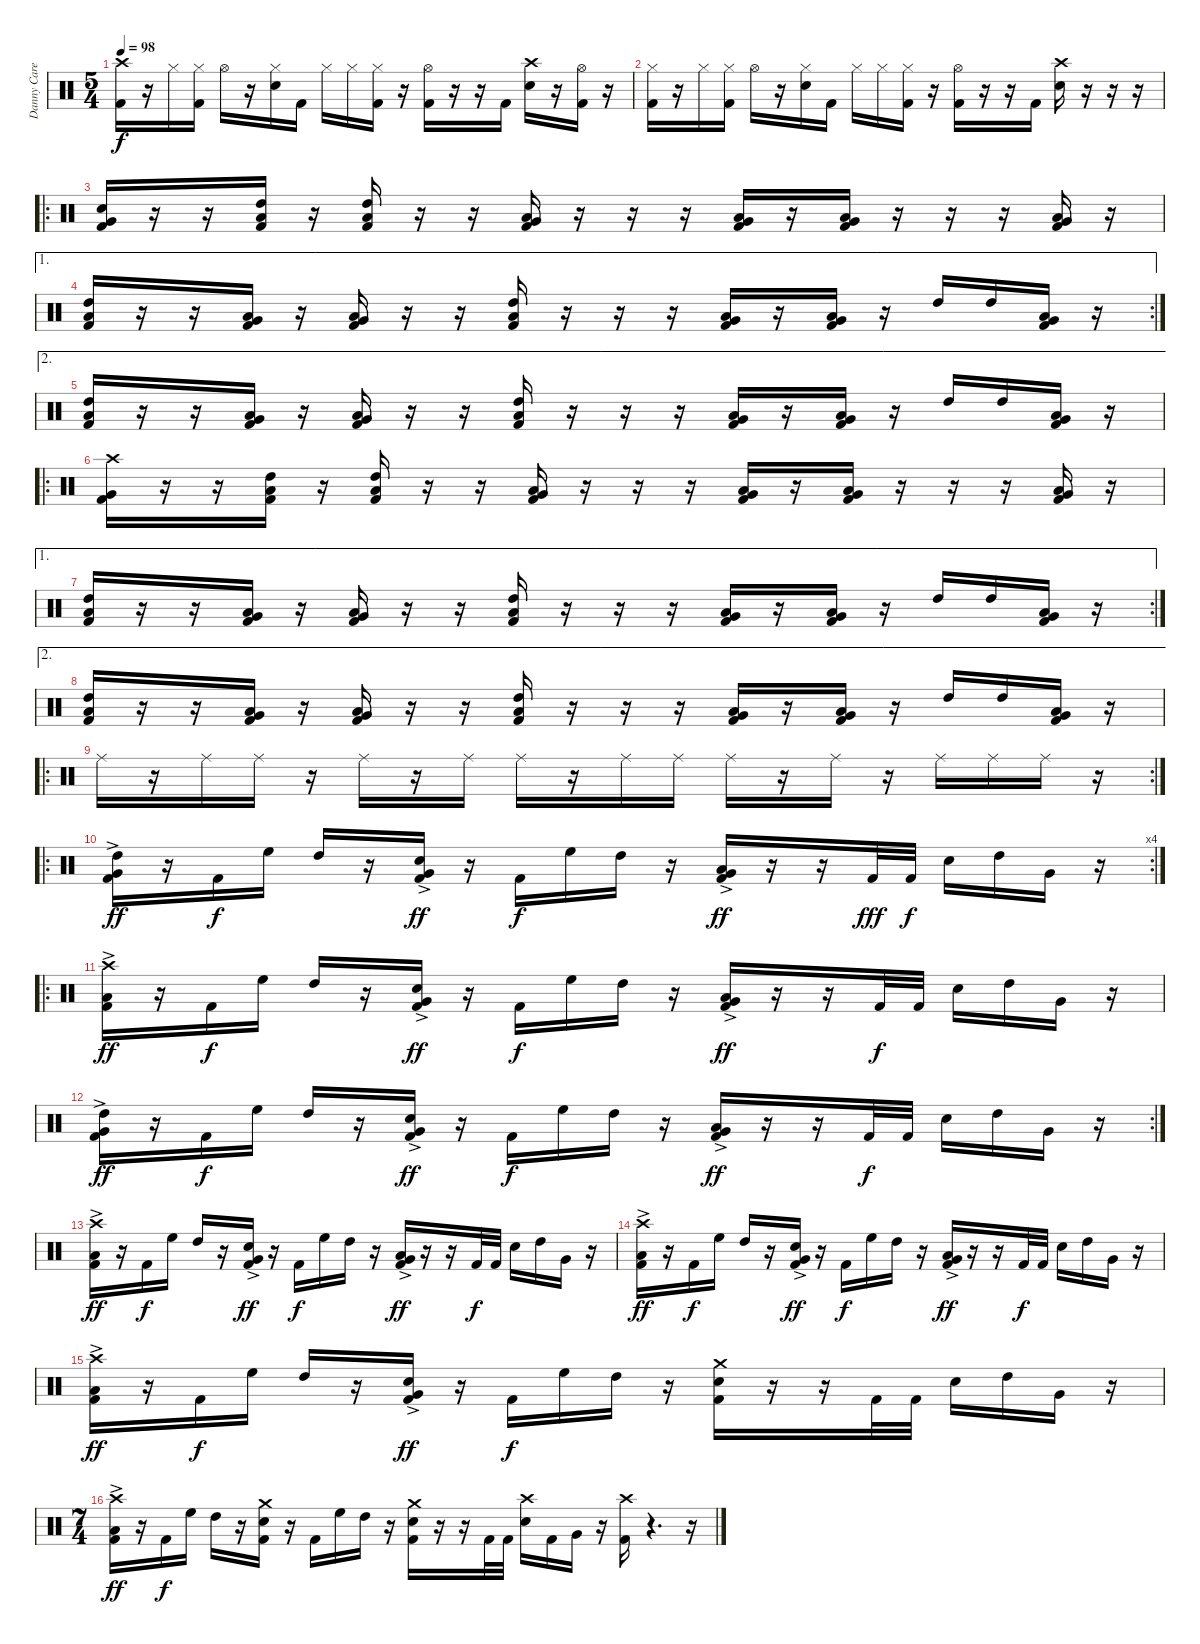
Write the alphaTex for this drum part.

\track ("Danny Carey" "Danny Care") {instrument percussion}
\staff {score}
\articulation defaults
\ts (5 4)
\tempo 98
\clef neutral
\ks c
("Crash high (hit)" "Kick (hit) 2").16{dy f} r.16 "Hi-Hat (closed)".16 ("Hi-Hat (closed)" "Kick (hit) 2").16 "Hi-Hat (open)".16 r.16 ("Hi-Hat (closed)" "Electric Snare (hit)").16 "Kick (hit) 2".16 "Hi-Hat (closed)".16 "Hi-Hat (closed)".16 ("Hi-Hat (closed)" "Kick (hit) 2").16 r.16 ("Hi-Hat (open)" "Kick (hit) 2").16 r.16 r.16 "Kick (hit) 2".16 ("Crash high (hit)" "Electric Snare (hit)").16 r.16 ("Hi-Hat (open)" "Kick (hit) 2").16 r.16 |
("Hi-Hat (closed)" "Kick (hit) 2").16 r.16 "Hi-Hat (closed)".16 ("Hi-Hat (closed)" "Kick (hit) 2").16 "Hi-Hat (open)".16 r.16 ("Hi-Hat (closed)" "Electric Snare (hit)").16 "Kick (hit) 2".16 "Hi-Hat (closed)".16 "Hi-Hat (closed)".16 ("Hi-Hat (closed)" "Kick (hit) 2").16 r.16 ("Hi-Hat (open)" "Kick (hit) 2").16 r.16 r.16 "Kick (hit) 2".16 ("Crash high (hit)" "Electric Snare (hit)").16 r.16 r.16 r.16 |
\ro
("Very Low Tom (hit)" "Electric Snare (hit)" "Kick (hit) 2").16 r.16 r.16 ("High Tom (hit)" "Low Floor Tom (hit)" "Kick (hit) 2").16 r.16 ("High Tom (hit)" "Low Floor Tom (hit)" "Kick (hit) 2").16 r.16 r.16 ("Very Low Tom (hit)" "Low Floor Tom (hit)" "Kick (hit) 2").16 r.16 r.16 r.16 ("Very Low Tom (hit)" "Low Floor Tom (hit)" "Kick (hit) 2").16 r.16 ("Very Low Tom (hit)" "Low Floor Tom (hit)" "Kick (hit) 2").16 r.16 r.16 r.16 ("Very Low Tom (hit)" "Low Floor Tom (hit)" "Kick (hit) 2").16 r.16 |
\ae 1
\rc 2
("High Tom (hit)" "Low Floor Tom (hit)" "Kick (hit) 2").16 r.16 r.16 ("Very Low Tom (hit)" "Low Floor Tom (hit)" "Kick (hit) 2").16 r.16 ("Very Low Tom (hit)" "Low Floor Tom (hit)" "Kick (hit) 2").16 r.16 r.16 ("High Tom (hit)" "Low Floor Tom (hit)" "Kick (hit) 2").16 r.16 r.16 r.16 ("Very Low Tom (hit)" "Low Floor Tom (hit)" "Kick (hit) 2").16 r.16 ("Very Low Tom (hit)" "Low Floor Tom (hit)" "Kick (hit) 2").16 r.16 "High Tom (hit)".16 "High Tom (hit)".16 ("Very Low Tom (hit)" "Low Floor Tom (hit)" "Kick (hit) 2").16 r.16 |
\ae 2
("High Tom (hit)" "Low Floor Tom (hit)" "Kick (hit) 2").16 r.16 r.16 ("Very Low Tom (hit)" "Low Floor Tom (hit)" "Kick (hit) 2").16 r.16 ("Very Low Tom (hit)" "Low Floor Tom (hit)" "Kick (hit) 2").16 r.16 r.16 ("High Tom (hit)" "Low Floor Tom (hit)" "Kick (hit) 2").16 r.16 r.16 r.16 ("Very Low Tom (hit)" "Low Floor Tom (hit)" "Kick (hit) 2").16 r.16 ("Very Low Tom (hit)" "Low Floor Tom (hit)" "Kick (hit) 2").16 r.16 "High Tom (hit)".16 "High Tom (hit)".16 ("Very Low Tom (hit)" "Low Floor Tom (hit)" "Kick (hit) 2").16 r.16 |
\ro
("Crash high (hit)" "Very Low Tom (hit)" "Kick (hit) 2").16 r.16 r.16 ("High Tom (hit)" "Low Floor Tom (hit)" "Kick (hit) 2").16 r.16 ("High Tom (hit)" "Low Floor Tom (hit)" "Kick (hit) 2").16 r.16 r.16 ("Very Low Tom (hit)" "Low Floor Tom (hit)" "Kick (hit) 2").16 r.16 r.16 r.16 ("Very Low Tom (hit)" "Low Floor Tom (hit)" "Kick (hit) 2").16 r.16 ("Very Low Tom (hit)" "Low Floor Tom (hit)" "Kick (hit) 2").16 r.16 r.16 r.16 ("Very Low Tom (hit)" "Low Floor Tom (hit)" "Kick (hit) 2").16 r.16 |
\ae 1
\rc 2
("High Tom (hit)" "Low Floor Tom (hit)" "Kick (hit) 2").16 r.16 r.16 ("Very Low Tom (hit)" "Low Floor Tom (hit)" "Kick (hit) 2").16 r.16 ("Very Low Tom (hit)" "Low Floor Tom (hit)" "Kick (hit) 2").16 r.16 r.16 ("High Tom (hit)" "Low Floor Tom (hit)" "Kick (hit) 2").16 r.16 r.16 r.16 ("Very Low Tom (hit)" "Low Floor Tom (hit)" "Kick (hit) 2").16 r.16 ("Very Low Tom (hit)" "Low Floor Tom (hit)" "Kick (hit) 2").16 r.16 "High Tom (hit)".16 "High Tom (hit)".16 ("Very Low Tom (hit)" "Low Floor Tom (hit)" "Kick (hit) 2").16 r.16 |
\ae 2
("High Tom (hit)" "Low Floor Tom (hit)" "Kick (hit) 2").16 r.16 r.16 ("Very Low Tom (hit)" "Low Floor Tom (hit)" "Kick (hit) 2").16 r.16 ("Very Low Tom (hit)" "Low Floor Tom (hit)" "Kick (hit) 2").16 r.16 r.16 ("High Tom (hit)" "Low Floor Tom (hit)" "Kick (hit) 2").16 r.16 r.16 r.16 ("Very Low Tom (hit)" "Low Floor Tom (hit)" "Kick (hit) 2").16 r.16 ("Very Low Tom (hit)" "Low Floor Tom (hit)" "Kick (hit) 2").16 r.16 "High Tom (hit)".16 "High Tom (hit)".16 ("Very Low Tom (hit)" "Low Floor Tom (hit)" "Kick (hit) 2").16 r.16 |
\ro
\rc 2 "Ride (middle)".16
r.16 "Ride (middle)".16 "Ride (middle)".16 r.16 "Ride (middle)".16 r.16 "Ride (middle)".16 "Ride (middle)".16 r.16 "Ride (middle)".16 "Ride (middle)".16 "Ride (middle)".16 r.16 "Ride (middle)".16 r.16 "Ride (middle)".16 "Ride (middle)".16 "Ride (middle)".16 r.16 |
\ro
\rc 4
("High Tom (hit)"{ac} "Very Low Tom (hit)"{ac} "Kick (hit) 2").16{dy ff} r.16 "Kick (hit) 2".16{dy f} "High Floor Tom (hit)".16 "High Tom (hit)".16 r.16 ("Very Low Tom (hit)"{ac} "Electric Snare (hit)" "Kick (hit) 2").16{dy ff} r.16 "Kick (hit) 2".16{dy f} "High Floor Tom (hit)".16 "High Tom (hit)".16 r.16 ("Very Low Tom (hit)"{ac} "Low Floor Tom (hit)"{ac} "Kick (hit) 2").16{dy ff} r.16 r.16 "Kick (hit) 2".32{dy fff} "Kick (hit) 2".32{dy f} "Electric Snare (hit)".16 "High Tom (hit)".16 "Very Low Tom (hit)".16 r.16 |
\ro
("Crash high (hit)" "Low Floor Tom (hit)"{ac} "Kick (hit) 2").16{dy ff} r.16 "Kick (hit) 2".16{dy f} "High Floor Tom (hit)".16 "High Tom (hit)".16 r.16 ("Very Low Tom (hit)"{ac} "Electric Snare (hit)" "Kick (hit) 2").16{dy ff} r.16 "Kick (hit) 2".16{dy f} "High Floor Tom (hit)".16 "High Tom (hit)".16 r.16 ("Very Low Tom (hit)"{ac} "Low Floor Tom (hit)"{ac} "Kick (hit) 2").16{dy ff} r.16 r.16 "Kick (hit) 2".32{dy f} "Kick (hit) 2".32 "Electric Snare (hit)".16 "High Tom (hit)".16 "Very Low Tom (hit)".16 r.16 |
\rc 2
("High Tom (hit)"{ac} "Very Low Tom (hit)"{ac} "Kick (hit) 2").16{dy ff} r.16 "Kick (hit) 2".16{dy f} "High Floor Tom (hit)".16 "High Tom (hit)".16 r.16 ("Very Low Tom (hit)"{ac} "Electric Snare (hit)" "Kick (hit) 2").16{dy ff} r.16 "Kick (hit) 2".16{dy f} "High Floor Tom (hit)".16 "High Tom (hit)".16 r.16 ("Very Low Tom (hit)"{ac} "Low Floor Tom (hit)"{ac} "Kick (hit) 2").16{dy ff} r.16 r.16 "Kick (hit) 2".32{dy f} "Kick (hit) 2".32 "Electric Snare (hit)".16 "High Tom (hit)".16 "Very Low Tom (hit)".16 r.16 |
("Crash high (hit)" "Low Floor Tom (hit)"{ac} "Kick (hit) 2").16{dy ff} r.16 "Kick (hit) 2".16{dy f} "High Floor Tom (hit)".16 "High Tom (hit)".16 r.16 ("Very Low Tom (hit)"{ac} "Electric Snare (hit)" "Kick (hit) 2").16{dy ff} r.16 "Kick (hit) 2".16{dy f} "High Floor Tom (hit)".16 "High Tom (hit)".16 r.16 ("Very Low Tom (hit)"{ac} "Low Floor Tom (hit)"{ac} "Kick (hit) 2").16{dy ff} r.16 r.16 "Kick (hit) 2".32{dy f} "Kick (hit) 2".32 "Electric Snare (hit)".16 "High Tom (hit)".16 "Very Low Tom (hit)".16 r.16 |
("Crash high (hit)" "Low Floor Tom (hit)"{ac} "Kick (hit) 2").16{dy ff} r.16 "Kick (hit) 2".16{dy f} "High Floor Tom (hit)".16 "High Tom (hit)".16 r.16 ("Very Low Tom (hit)"{ac} "Electric Snare (hit)" "Kick (hit) 2").16{dy ff} r.16 "Kick (hit) 2".16{dy f} "High Floor Tom (hit)".16 "High Tom (hit)".16 r.16 ("Very Low Tom (hit)"{ac} "Low Floor Tom (hit)"{ac} "Kick (hit) 2").16{dy ff} r.16 r.16 "Kick (hit) 2".32{dy f} "Kick (hit) 2".32 "Electric Snare (hit)".16 "High Tom (hit)".16 "Very Low Tom (hit)".16 r.16 |
("Crash high (hit)" "Low Floor Tom (hit)"{ac} "Kick (hit) 2").16{dy ff} r.16 "Kick (hit) 2".16{dy f} "High Floor Tom (hit)".16 "High Tom (hit)".16 r.16 ("Very Low Tom (hit)"{ac} "Electric Snare (hit)" "Kick (hit) 2").16{dy ff} r.16 "Kick (hit) 2".16{dy f} "High Floor Tom (hit)".16 "High Tom (hit)".16 r.16 ("Crash medium (hit)" "Electric Snare (hit)" "Kick (hit) 2").16 r.16 r.16 "Kick (hit) 2".32 "Kick (hit) 2".32 "Electric Snare (hit)".16 "High Tom (hit)".16 "Very Low Tom (hit)".16 r.16 |
\ts (7 4)
("Crash high (hit)" "Low Floor Tom (hit)"{ac} "Kick (hit) 2").16{dy ff} r.16 "Kick (hit) 2".16{dy f} "High Floor Tom (hit)".16 "High Tom (hit)".16 r.16 ("Crash medium (hit)" "Electric Snare (hit)" "Kick (hit) 2").16 r.16 "Kick (hit) 2".16 "High Floor Tom (hit)".16 "High Tom (hit)".16 r.16 ("Crash medium (hit)" "Electric Snare (hit)" "Kick (hit) 2").16 r.16 r.16 "Kick (hit) 2".32 "Kick (hit) 2".32 ("Crash high (hit)" "Electric Snare (hit)").16 "Kick (hit) 2".16 "Very Low Tom (hit)".16 r.16 ("Crash high (hit)" "Kick (hit) 2").16 r.4{d} r.16
